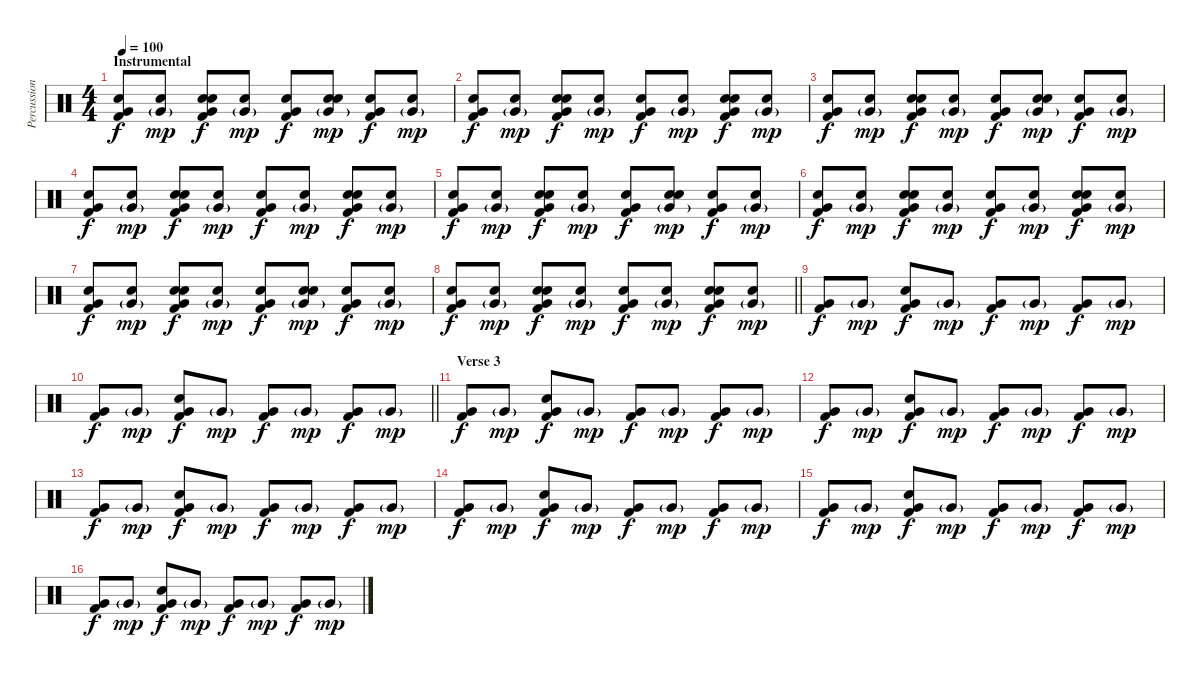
\track ("Percussion" "Percussion") {instrument percussion}
\staff {score}
\articulation defaults
\ts (4 4)
\section ("" "Instrumental")
\tempo 100
\clef neutral
\ks c
("Hand Clap (hit)" "Very Low Tom (hit)" "Kick (hit) 2").8{dy f} ("Hand Clap (hit)" "Very Low Tom (hit)"{g}).8{dy mp} ("Hand Clap (hit)" "Snare (hit) 2" "Very Low Tom (hit)" "Kick (hit) 2").8{dy f} ("Hand Clap (hit)" "Very Low Tom (hit)"{g}).8{dy mp} ("Hand Clap (hit)" "Very Low Tom (hit)" "Kick (hit) 2").8{dy f} ("Hand Clap (hit)" "Snare (hit) 2" "Very Low Tom (hit)"{g}).8{dy mp} ("Hand Clap (hit)" "Very Low Tom (hit)" "Kick (hit) 2").8{dy f} ("Hand Clap (hit)" "Very Low Tom (hit)"{g}).8{dy mp} |
("Hand Clap (hit)" "Very Low Tom (hit)" "Kick (hit) 2").8{dy f} ("Hand Clap (hit)" "Very Low Tom (hit)"{g}).8{dy mp} ("Hand Clap (hit)" "Snare (hit) 2" "Very Low Tom (hit)" "Kick (hit) 2").8{dy f} ("Hand Clap (hit)" "Very Low Tom (hit)"{g}).8{dy mp} ("Hand Clap (hit)" "Very Low Tom (hit)" "Kick (hit) 2").8{dy f} ("Hand Clap (hit)" "Very Low Tom (hit)"{g}).8{dy mp} ("Hand Clap (hit)" "Snare (hit) 2" "Very Low Tom (hit)" "Kick (hit) 2").8{dy f} ("Hand Clap (hit)" "Very Low Tom (hit)"{g}).8{dy mp} |
("Hand Clap (hit)" "Very Low Tom (hit)" "Kick (hit) 2").8{dy f} ("Hand Clap (hit)" "Very Low Tom (hit)"{g}).8{dy mp} ("Hand Clap (hit)" "Snare (hit) 2" "Very Low Tom (hit)" "Kick (hit) 2").8{dy f} ("Hand Clap (hit)" "Very Low Tom (hit)"{g}).8{dy mp} ("Hand Clap (hit)" "Very Low Tom (hit)" "Kick (hit) 2").8{dy f} ("Hand Clap (hit)" "Snare (hit) 2" "Very Low Tom (hit)"{g}).8{dy mp} ("Hand Clap (hit)" "Very Low Tom (hit)" "Kick (hit) 2").8{dy f} ("Hand Clap (hit)" "Very Low Tom (hit)"{g}).8{dy mp} |
("Hand Clap (hit)" "Very Low Tom (hit)" "Kick (hit) 2").8{dy f} ("Hand Clap (hit)" "Very Low Tom (hit)"{g}).8{dy mp} ("Hand Clap (hit)" "Snare (hit) 2" "Very Low Tom (hit)" "Kick (hit) 2").8{dy f} ("Hand Clap (hit)" "Very Low Tom (hit)"{g}).8{dy mp} ("Hand Clap (hit)" "Very Low Tom (hit)" "Kick (hit) 2").8{dy f} ("Hand Clap (hit)" "Very Low Tom (hit)"{g}).8{dy mp} ("Hand Clap (hit)" "Snare (hit) 2" "Very Low Tom (hit)" "Kick (hit) 2").8{dy f} ("Hand Clap (hit)" "Very Low Tom (hit)"{g}).8{dy mp} |
("Hand Clap (hit)" "Very Low Tom (hit)" "Kick (hit) 2").8{dy f} ("Hand Clap (hit)" "Very Low Tom (hit)"{g}).8{dy mp} ("Hand Clap (hit)" "Snare (hit) 2" "Very Low Tom (hit)" "Kick (hit) 2").8{dy f} ("Hand Clap (hit)" "Very Low Tom (hit)"{g}).8{dy mp} ("Hand Clap (hit)" "Very Low Tom (hit)" "Kick (hit) 2").8{dy f} ("Hand Clap (hit)" "Snare (hit) 2" "Very Low Tom (hit)"{g}).8{dy mp} ("Hand Clap (hit)" "Very Low Tom (hit)" "Kick (hit) 2").8{dy f} ("Hand Clap (hit)" "Very Low Tom (hit)"{g}).8{dy mp} |
("Hand Clap (hit)" "Very Low Tom (hit)" "Kick (hit) 2").8{dy f} ("Hand Clap (hit)" "Very Low Tom (hit)"{g}).8{dy mp} ("Hand Clap (hit)" "Snare (hit) 2" "Very Low Tom (hit)" "Kick (hit) 2").8{dy f} ("Hand Clap (hit)" "Very Low Tom (hit)"{g}).8{dy mp} ("Hand Clap (hit)" "Very Low Tom (hit)" "Kick (hit) 2").8{dy f} ("Hand Clap (hit)" "Very Low Tom (hit)"{g}).8{dy mp} ("Hand Clap (hit)" "Snare (hit) 2" "Very Low Tom (hit)" "Kick (hit) 2").8{dy f} ("Hand Clap (hit)" "Very Low Tom (hit)"{g}).8{dy mp} |
("Hand Clap (hit)" "Very Low Tom (hit)" "Kick (hit) 2").8{dy f} ("Hand Clap (hit)" "Very Low Tom (hit)"{g}).8{dy mp} ("Hand Clap (hit)" "Snare (hit) 2" "Very Low Tom (hit)" "Kick (hit) 2").8{dy f} ("Hand Clap (hit)" "Very Low Tom (hit)"{g}).8{dy mp} ("Hand Clap (hit)" "Very Low Tom (hit)" "Kick (hit) 2").8{dy f} ("Hand Clap (hit)" "Snare (hit) 2" "Very Low Tom (hit)"{g}).8{dy mp} ("Hand Clap (hit)" "Very Low Tom (hit)" "Kick (hit) 2").8{dy f} ("Hand Clap (hit)" "Very Low Tom (hit)"{g}).8{dy mp} |
\barLineRight lightlight
("Hand Clap (hit)" "Very Low Tom (hit)" "Kick (hit) 2").8{dy f} ("Hand Clap (hit)" "Very Low Tom (hit)"{g}).8{dy mp} ("Hand Clap (hit)" "Snare (hit) 2" "Very Low Tom (hit)" "Kick (hit) 2").8{dy f} ("Hand Clap (hit)" "Very Low Tom (hit)"{g}).8{dy mp} ("Hand Clap (hit)" "Very Low Tom (hit)" "Kick (hit) 2").8{dy f} ("Hand Clap (hit)" "Very Low Tom (hit)"{g}).8{dy mp} ("Hand Clap (hit)" "Snare (hit) 2" "Very Low Tom (hit)" "Kick (hit) 2").8{dy f} ("Hand Clap (hit)" "Very Low Tom (hit)"{g}).8{dy mp} |
("Very Low Tom (hit)" "Kick (hit) 2").8{dy f} "Very Low Tom (hit)"{g}.8{dy mp} ("Snare (hit) 2" "Very Low Tom (hit)" "Kick (hit) 2").8{dy f} "Very Low Tom (hit)"{g}.8{dy mp} ("Very Low Tom (hit)" "Kick (hit) 2").8{dy f} "Very Low Tom (hit)"{g}.8{dy mp} ("Very Low Tom (hit)" "Kick (hit) 2").8{dy f} "Very Low Tom (hit)"{g}.8{dy mp} |
\barLineRight lightlight
("Very Low Tom (hit)" "Kick (hit) 2").8{dy f} "Very Low Tom (hit)"{g}.8{dy mp} ("Snare (hit) 2" "Very Low Tom (hit)" "Kick (hit) 2").8{dy f} "Very Low Tom (hit)"{g}.8{dy mp} ("Very Low Tom (hit)" "Kick (hit) 2").8{dy f} "Very Low Tom (hit)"{g}.8{dy mp} ("Very Low Tom (hit)" "Kick (hit) 2").8{dy f} "Very Low Tom (hit)"{g}.8{dy mp} |
\section ("" "Verse 3")
("Very Low Tom (hit)" "Kick (hit) 2").8{dy f} "Very Low Tom (hit)"{g}.8{dy mp} ("Snare (hit) 2" "Very Low Tom (hit)" "Kick (hit) 2").8{dy f} "Very Low Tom (hit)"{g}.8{dy mp} ("Very Low Tom (hit)" "Kick (hit) 2").8{dy f} "Very Low Tom (hit)"{g}.8{dy mp} ("Very Low Tom (hit)" "Kick (hit) 2").8{dy f} "Very Low Tom (hit)"{g}.8{dy mp} |
("Very Low Tom (hit)" "Kick (hit) 2").8{dy f} "Very Low Tom (hit)"{g}.8{dy mp} ("Snare (hit) 2" "Very Low Tom (hit)" "Kick (hit) 2").8{dy f} "Very Low Tom (hit)"{g}.8{dy mp} ("Very Low Tom (hit)" "Kick (hit) 2").8{dy f} "Very Low Tom (hit)"{g}.8{dy mp} ("Very Low Tom (hit)" "Kick (hit) 2").8{dy f} "Very Low Tom (hit)"{g}.8{dy mp} |
("Very Low Tom (hit)" "Kick (hit) 2").8{dy f} "Very Low Tom (hit)"{g}.8{dy mp} ("Snare (hit) 2" "Very Low Tom (hit)" "Kick (hit) 2").8{dy f} "Very Low Tom (hit)"{g}.8{dy mp} ("Very Low Tom (hit)" "Kick (hit) 2").8{dy f} "Very Low Tom (hit)"{g}.8{dy mp} ("Very Low Tom (hit)" "Kick (hit) 2").8{dy f} "Very Low Tom (hit)"{g}.8{dy mp} |
("Very Low Tom (hit)" "Kick (hit) 2").8{dy f} "Very Low Tom (hit)"{g}.8{dy mp} ("Snare (hit) 2" "Very Low Tom (hit)" "Kick (hit) 2").8{dy f} "Very Low Tom (hit)"{g}.8{dy mp} ("Very Low Tom (hit)" "Kick (hit) 2").8{dy f} "Very Low Tom (hit)"{g}.8{dy mp} ("Very Low Tom (hit)" "Kick (hit) 2").8{dy f} "Very Low Tom (hit)"{g}.8{dy mp} |
("Very Low Tom (hit)" "Kick (hit) 2").8{dy f} "Very Low Tom (hit)"{g}.8{dy mp} ("Snare (hit) 2" "Very Low Tom (hit)" "Kick (hit) 2").8{dy f} "Very Low Tom (hit)"{g}.8{dy mp} ("Very Low Tom (hit)" "Kick (hit) 2").8{dy f} "Very Low Tom (hit)"{g}.8{dy mp} ("Very Low Tom (hit)" "Kick (hit) 2").8{dy f} "Very Low Tom (hit)"{g}.8{dy mp} |
("Very Low Tom (hit)" "Kick (hit) 2").8{dy f} "Very Low Tom (hit)"{g}.8{dy mp} ("Snare (hit) 2" "Very Low Tom (hit)" "Kick (hit) 2").8{dy f} "Very Low Tom (hit)"{g}.8{dy mp} ("Very Low Tom (hit)" "Kick (hit) 2").8{dy f} "Very Low Tom (hit)"{g}.8{dy mp} ("Very Low Tom (hit)" "Kick (hit) 2").8{dy f} "Very Low Tom (hit)"{g}.8{dy mp}
